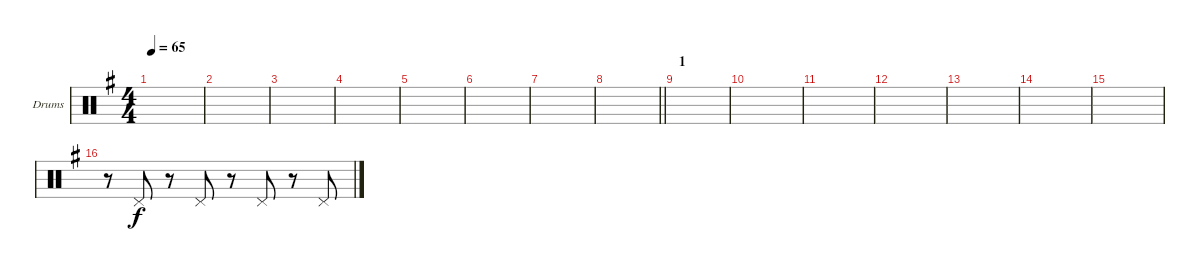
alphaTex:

\defaultSystemsLayout 4
\bracketExtendMode groupsimilarinstruments
\firstSystemTrackNameOrientation horizontal
\otherSystemsTrackNameOrientation horizontal
\track ("Drumkit" "Drums") {instrument percussion}
\staff {score}
\articulation defaults
\ts (4 4)
\tempo 65
\clef neutral
\scale
0.502183
\ks eminor
|
\scale
0.248908 |
\scale
0.248908 |
\scale
0.333333 |
\scale
0.333333 |
\scale
0.333333 |
\scale
0.333333 |
\scale
0.333333
\barLineRight lightlight
|
\section ("" "1")
\scale
0.333333 |
\scale
0.333333 |
\scale
0.333333 |
\scale
0.333333 |
\scale
0.333333 |
\scale
0.333333 |
\scale
0.333333 |
\scale
0.333333 r.8 "Pedal Hi-Hat (hit)".8 r.8 "Pedal Hi-Hat (hit)".8 r.8 "Pedal Hi-Hat (hit)".8 r.8 "Pedal Hi-Hat (hit)".8
